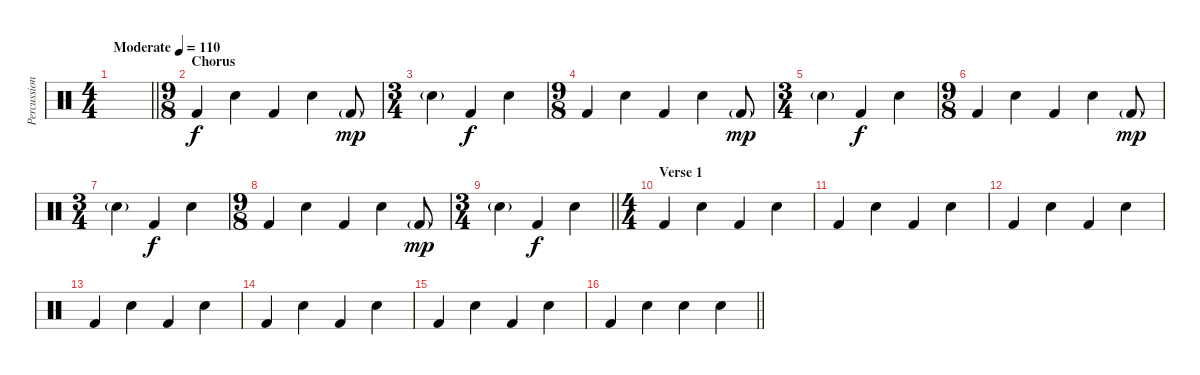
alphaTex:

\track ("Percussion" "Percussion") {instrument percussion}
\staff {score}
\articulation defaults
\ts (4 4)
\tempo (110 "Moderate")
\clef neutral
\barLineRight lightlight
\ks c
|
\ts (9 8)
\section ("" "Chorus")
"Kick (hit) 2".4 "Snare (hit) 2".4 "Kick (hit) 2".4 "Snare (hit) 2".4 "Kick (hit) 2"{g}.8{dy mp} |
\ts (3 4)
"Snare (hit) 2"{g}.4 "Kick (hit) 2".4{dy f} "Snare (hit) 2".4 |
\ts (9 8)
"Kick (hit) 2".4 "Snare (hit) 2".4 "Kick (hit) 2".4 "Snare (hit) 2".4 "Kick (hit) 2"{g}.8{dy mp} |
\ts (3 4)
"Snare (hit) 2"{g}.4 "Kick (hit) 2".4{dy f} "Snare (hit) 2".4 |
\ts (9 8)
"Kick (hit) 2".4 "Snare (hit) 2".4 "Kick (hit) 2".4 "Snare (hit) 2".4 "Kick (hit) 2"{g}.8{dy mp} |
\ts (3 4)
"Snare (hit) 2"{g}.4 "Kick (hit) 2".4{dy f} "Snare (hit) 2".4 |
\ts (9 8)
"Kick (hit) 2".4 "Snare (hit) 2".4 "Kick (hit) 2".4 "Snare (hit) 2".4 "Kick (hit) 2"{g}.8{dy mp} |
\ts (3 4)
\barLineRight lightlight "Snare (hit) 2"{g}.4 "Kick (hit) 2".4{dy f} "Snare (hit) 2".4
|
\ts (4 4)
\section ("" "Verse 1")
"Kick (hit) 2".4 "Snare (hit) 2".4 "Kick (hit) 2".4 "Snare (hit) 2".4 |
"Kick (hit) 2".4 "Snare (hit) 2".4 "Kick (hit) 2".4 "Snare (hit) 2".4 |
"Kick (hit) 2".4 "Snare (hit) 2".4 "Kick (hit) 2".4 "Snare (hit) 2".4 |
"Kick (hit) 2".4 "Snare (hit) 2".4 "Kick (hit) 2".4 "Snare (hit) 2".4 |
"Kick (hit) 2".4 "Snare (hit) 2".4 "Kick (hit) 2".4 "Snare (hit) 2".4 |
"Kick (hit) 2".4 "Snare (hit) 2".4 "Kick (hit) 2".4 "Snare (hit) 2".4 |
\barLineRight lightlight "Kick (hit) 2".4 "Snare (hit) 2".4 "Snare (hit) 2".4 "Snare (hit) 2".4
